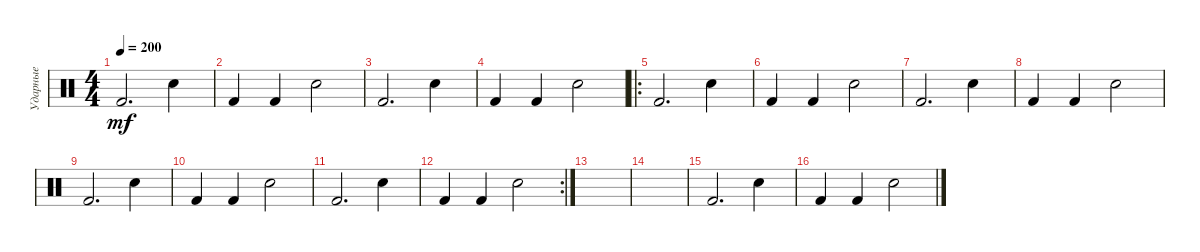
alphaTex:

\track ("Ударные" "Ударные") {instrument percussion}
\staff {score}
\articulation defaults
\ts (4 4)
\tempo 200
\clef neutral
\ks c "Kick (hit) 2".2{d dy mf} "Snare (hit) 2".4
|
"Kick (hit) 2".4 "Kick (hit) 2".4 "Snare (hit) 2".2 |
"Kick (hit) 2".2{d} "Snare (hit) 2".4 |
"Kick (hit) 2".4 "Kick (hit) 2".4 "Snare (hit) 2".2 |
\ro "Kick (hit) 2".2{d} "Snare (hit) 2".4
|
"Kick (hit) 2".4 "Kick (hit) 2".4 "Snare (hit) 2".2 |
"Kick (hit) 2".2{d} "Snare (hit) 2".4 |
"Kick (hit) 2".4 "Kick (hit) 2".4 "Snare (hit) 2".2 |
"Kick (hit) 2".2{d} "Snare (hit) 2".4 |
"Kick (hit) 2".4 "Kick (hit) 2".4 "Snare (hit) 2".2 |
"Kick (hit) 2".2{d} "Snare (hit) 2".4 |
\rc 2 "Kick (hit) 2".4 "Kick (hit) 2".4 "Snare (hit) 2".2
|
|
|
"Kick (hit) 2".2{d} "Snare (hit) 2".4 |
"Kick (hit) 2".4 "Kick (hit) 2".4 "Snare (hit) 2".2
